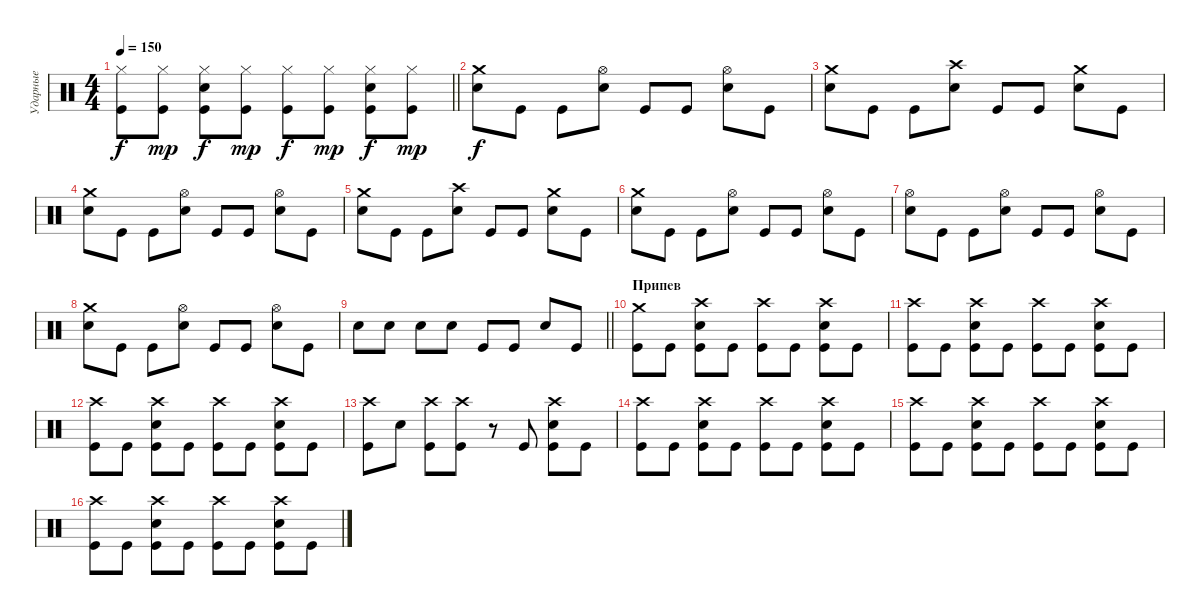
\track ("Ударные" "Ударные") {instrument percussion}
\staff {score}
\articulation defaults
\ts (4 4)
\tempo 150
\clef neutral
\barLineRight lightlight
\ks c
("Hi-Hat (closed)" "Kick (hit)").8{dy f} ("Hi-Hat (closed)" "Kick (hit)").8{dy mp} ("Hi-Hat (closed)" "Electric Snare (hit)" "Kick (hit)").8{dy f} ("Hi-Hat (closed)" "Kick (hit)").8{dy mp} ("Hi-Hat (closed)" "Kick (hit)").8{dy f} ("Hi-Hat (closed)" "Kick (hit)").8{dy mp} ("Hi-Hat (closed)" "Electric Snare (hit)" "Kick (hit)").8{dy f} ("Hi-Hat (closed)" "Kick (hit)").8{dy mp} |
\section ("" " ")
("Crash medium (hit)" "Electric Snare (hit)").8{dy f} "Kick (hit)".8 "Kick (hit)".8 ("Hi-Hat (open)" "Electric Snare (hit)").8 "Kick (hit)".8 "Kick (hit)".8 ("Hi-Hat (open)" "Electric Snare (hit)").8 "Kick (hit)".8 |
("Crash medium (hit)" "Electric Snare (hit)").8 "Kick (hit)".8 "Kick (hit)".8 ("Crash high (hit)" "Electric Snare (hit)").8 "Kick (hit)".8 "Kick (hit)".8 ("Crash medium (hit)" "Electric Snare (hit)").8 "Kick (hit)".8 |
("Crash medium (hit)" "Electric Snare (hit)").8 "Kick (hit)".8 "Kick (hit)".8 ("Hi-Hat (open)" "Electric Snare (hit)").8 "Kick (hit)".8 "Kick (hit)".8 ("Hi-Hat (open)" "Electric Snare (hit)").8 "Kick (hit)".8 |
("Crash medium (hit)" "Electric Snare (hit)").8 "Kick (hit)".8 "Kick (hit)".8 ("Crash high (hit)" "Electric Snare (hit)").8 "Kick (hit)".8 "Kick (hit)".8 ("Crash medium (hit)" "Electric Snare (hit)").8 "Kick (hit)".8 |
("Crash medium (hit)" "Electric Snare (hit)").8 "Kick (hit)".8 "Kick (hit)".8 ("Hi-Hat (open)" "Electric Snare (hit)").8 "Kick (hit)".8 "Kick (hit)".8 ("Hi-Hat (open)" "Electric Snare (hit)").8 "Kick (hit)".8 |
("Hi-Hat (open)" "Electric Snare (hit)").8 "Kick (hit)".8 "Kick (hit)".8 ("Hi-Hat (open)" "Electric Snare (hit)").8 "Kick (hit)".8 "Kick (hit)".8 ("Hi-Hat (open)" "Electric Snare (hit)").8 "Kick (hit)".8 |
("Crash medium (hit)" "Electric Snare (hit)").8 "Kick (hit)".8 "Kick (hit)".8 ("Hi-Hat (open)" "Electric Snare (hit)").8 "Kick (hit)".8 "Kick (hit)".8 ("Hi-Hat (open)" "Electric Snare (hit)").8 "Kick (hit)".8 |
\barLineRight lightlight "Electric Snare (hit)".8 "Electric Snare (hit)".8 "Electric Snare (hit)".8 "Electric Snare (hit)".8 "Kick (hit)".8 "Kick (hit)".8 "Electric Snare (hit)".8 "Kick (hit)".8
|
\section ("" "Припев")
("Crash medium (hit)" "Kick (hit)").8 "Kick (hit)".8 ("Crash high (hit)" "Electric Snare (hit)" "Kick (hit)").8 "Kick (hit)".8 ("Crash high (hit)" "Kick (hit)").8 "Kick (hit)".8 ("Crash high (hit)" "Electric Snare (hit)" "Kick (hit)").8 "Kick (hit)".8 |
("Crash high (hit)" "Kick (hit)").8 "Kick (hit)".8 ("Crash high (hit)" "Electric Snare (hit)" "Kick (hit)").8 "Kick (hit)".8 ("Crash high (hit)" "Kick (hit)").8 "Kick (hit)".8 ("Crash high (hit)" "Electric Snare (hit)" "Kick (hit)").8 "Kick (hit)".8 |
("Crash high (hit)" "Kick (hit)").8 "Kick (hit)".8 ("Crash high (hit)" "Electric Snare (hit)" "Kick (hit)").8 "Kick (hit)".8 ("Crash high (hit)" "Kick (hit)").8 "Kick (hit)".8 ("Crash high (hit)" "Electric Snare (hit)" "Kick (hit)").8 "Kick (hit)".8 |
("Crash high (hit)" "Kick (hit)").8 "Electric Snare (hit)".8 ("Crash high (hit)" "Kick (hit)").8 ("Crash high (hit)" "Kick (hit)").8 r.8 "Kick (hit)".8 ("Crash high (hit)" "Electric Snare (hit)" "Kick (hit)").8 "Kick (hit)".8 |
("Crash high (hit)" "Kick (hit)").8 "Kick (hit)".8 ("Crash high (hit)" "Electric Snare (hit)" "Kick (hit)").8 "Kick (hit)".8 ("Crash high (hit)" "Kick (hit)").8 "Kick (hit)".8 ("Crash high (hit)" "Electric Snare (hit)" "Kick (hit)").8 "Kick (hit)".8 |
("Crash high (hit)" "Kick (hit)").8 "Kick (hit)".8 ("Crash high (hit)" "Electric Snare (hit)" "Kick (hit)").8 "Kick (hit)".8 ("Crash high (hit)" "Kick (hit)").8 "Kick (hit)".8 ("Crash high (hit)" "Electric Snare (hit)" "Kick (hit)").8 "Kick (hit)".8 |
("Crash high (hit)" "Kick (hit)").8 "Kick (hit)".8 ("Crash high (hit)" "Electric Snare (hit)" "Kick (hit)").8 "Kick (hit)".8 ("Crash high (hit)" "Kick (hit)").8 "Kick (hit)".8 ("Crash high (hit)" "Electric Snare (hit)" "Kick (hit)").8 "Kick (hit)".8
